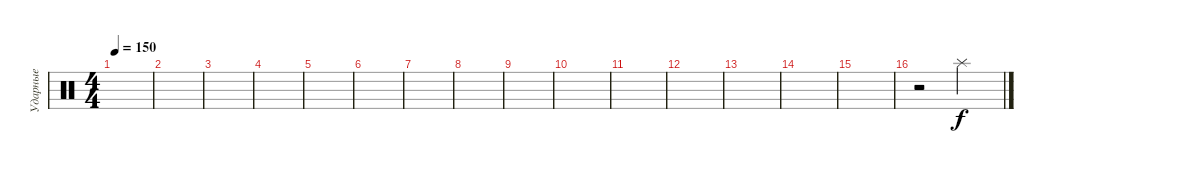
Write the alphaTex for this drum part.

\track ("Ударные" "Ударные") {instrument percussion}
\staff {score}
\articulation defaults
\ts (4 4)
\tempo 150
\clef neutral
\ks c
|
|
|
|
|
|
|
|
|
|
|
|
|
|
|
r.2 "Splash (hit)".2
